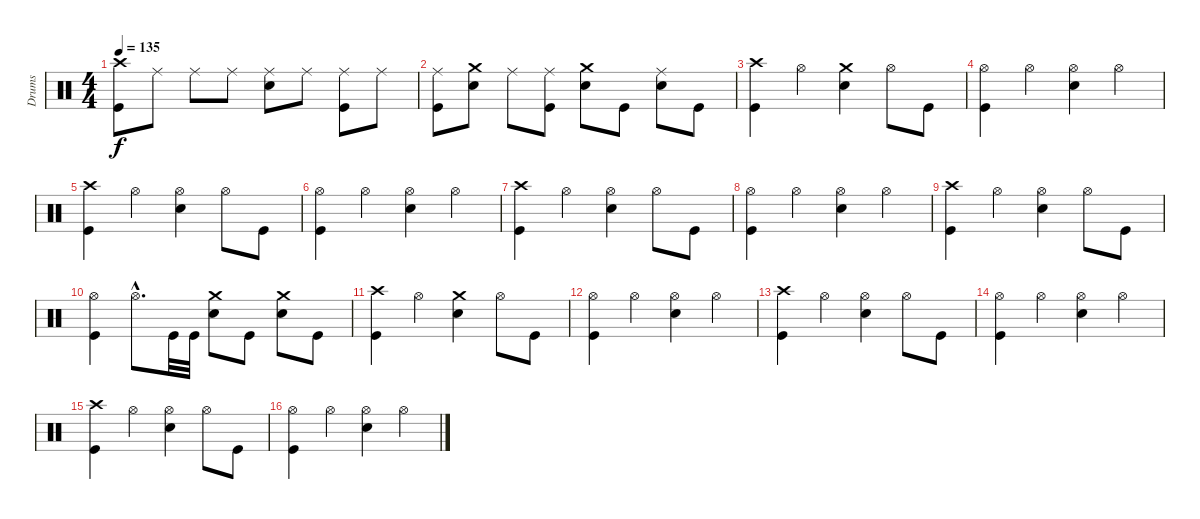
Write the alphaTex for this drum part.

\track ("Drums" "Drums") {instrument percussion}
\staff {score}
\articulation defaults
\ts (4 4)
\tempo 135
\clef neutral
\ks c
("Kick (hit)" "Crash high (hit)").8{dy f} "Ride (middle)".8 "Ride (middle)".8 "Ride (middle)".8 ("Ride (middle)" "Snare (hit) 2").8 "Ride (middle)".8 ("Kick (hit)" "Ride (middle)").8 "Ride (middle)".8 |
("Kick (hit)" "Ride (middle)").8 ("Crash medium (hit)" "Snare (hit) 2").8 "Ride (middle)".8 ("Kick (hit)" "Ride (middle)").8 ("Crash medium (hit)" "Snare (hit) 2").8 "Kick (hit)".8 ("Ride (middle)" "Snare (hit) 2").8 "Kick (hit)".8 |
("Kick (hit)" "Crash high (hit)").4 "Hi-Hat (open)".4 ("Crash medium (hit)" "Snare (hit) 2").4 "Hi-Hat (open)".8 "Kick (hit)".8 |
("Kick (hit)" "Hi-Hat (open)").4 "Hi-Hat (open)".4 ("Hi-Hat (open)" "Snare (hit) 2").4 "Hi-Hat (open)".4 |
("Kick (hit)" "Crash high (hit)").4 "Hi-Hat (open)".4 ("Hi-Hat (open)" "Snare (hit) 2").4 "Hi-Hat (open)".8 "Kick (hit)".8 |
("Kick (hit)" "Hi-Hat (open)").4 "Hi-Hat (open)".4 ("Hi-Hat (open)" "Snare (hit) 2").4 "Hi-Hat (open)".4 |
("Kick (hit)" "Crash high (hit)").4 "Hi-Hat (open)".4 ("Hi-Hat (open)" "Snare (hit) 2").4 "Hi-Hat (open)".8 "Kick (hit)".8 |
("Kick (hit)" "Hi-Hat (open)").4 "Hi-Hat (open)".4 ("Hi-Hat (open)" "Snare (hit) 2").4 "Hi-Hat (open)".4 |
("Kick (hit)" "Crash high (hit)").4 "Hi-Hat (open)".4 ("Hi-Hat (open)" "Snare (hit) 2").4 "Hi-Hat (open)".8 "Kick (hit)".8 |
("Kick (hit)" "Hi-Hat (open)").4 "Hi-Hat (open)"{hac}.8{d} "Kick (hit)".32 "Kick (hit)".32 ("Crash medium (hit)" "Snare (hit) 2").8 "Kick (hit)".8 ("Crash medium (hit)" "Snare (hit) 2").8 "Kick (hit)".8 |
("Kick (hit)" "Crash high (hit)").4 "Hi-Hat (open)".4 ("Crash medium (hit)" "Snare (hit) 2").4 "Hi-Hat (open)".8 "Kick (hit)".8 |
("Kick (hit)" "Hi-Hat (open)").4 "Hi-Hat (open)".4 ("Hi-Hat (open)" "Snare (hit) 2").4 "Hi-Hat (open)".4 |
("Kick (hit)" "Crash high (hit)").4 "Hi-Hat (open)".4 ("Hi-Hat (open)" "Snare (hit) 2").4 "Hi-Hat (open)".8 "Kick (hit)".8 |
("Kick (hit)" "Hi-Hat (open)").4 "Hi-Hat (open)".4 ("Hi-Hat (open)" "Snare (hit) 2").4 "Hi-Hat (open)".4 |
("Kick (hit)" "Crash high (hit)").4 "Hi-Hat (open)".4 ("Hi-Hat (open)" "Snare (hit) 2").4 "Hi-Hat (open)".8 "Kick (hit)".8 |
("Kick (hit)" "Hi-Hat (open)").4 "Hi-Hat (open)".4 ("Hi-Hat (open)" "Snare (hit) 2").4 "Hi-Hat (open)".4
